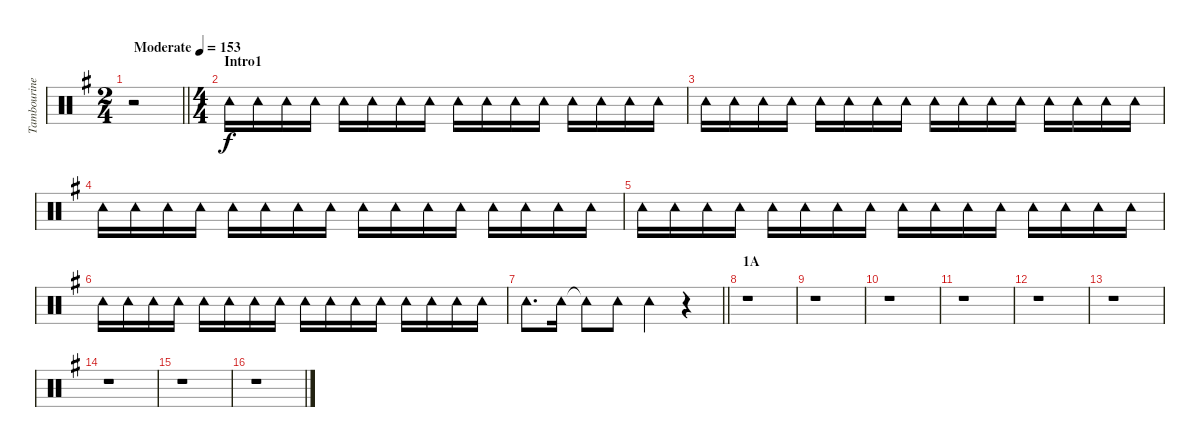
\track ("Tambourine" "Tambourine") {instrument percussion}
\staff {score}
\articulation defaults
\ts (2 4)
\tempo (153 "Moderate")
\clef neutral
\barLineRight lightlight
\ks g
r.2{dy f} |
\ts (4 4)
\section ("" "Intro1")
"Tambourine (hit)".16 "Tambourine (hit)".16 "Tambourine (hit)".16 "Tambourine (hit)".16 "Tambourine (hit)".16 "Tambourine (hit)".16 "Tambourine (hit)".16 "Tambourine (hit)".16 "Tambourine (hit)".16 "Tambourine (hit)".16 "Tambourine (hit)".16 "Tambourine (hit)".16 "Tambourine (hit)".16 "Tambourine (hit)".16 "Tambourine (hit)".16 "Tambourine (hit)".16 |
"Tambourine (hit)".16 "Tambourine (hit)".16 "Tambourine (hit)".16 "Tambourine (hit)".16 "Tambourine (hit)".16 "Tambourine (hit)".16 "Tambourine (hit)".16 "Tambourine (hit)".16 "Tambourine (hit)".16 "Tambourine (hit)".16 "Tambourine (hit)".16 "Tambourine (hit)".16 "Tambourine (hit)".16 "Tambourine (hit)".16 "Tambourine (hit)".16 "Tambourine (hit)".16 |
"Tambourine (hit)".16 "Tambourine (hit)".16 "Tambourine (hit)".16 "Tambourine (hit)".16 "Tambourine (hit)".16 "Tambourine (hit)".16 "Tambourine (hit)".16 "Tambourine (hit)".16 "Tambourine (hit)".16 "Tambourine (hit)".16 "Tambourine (hit)".16 "Tambourine (hit)".16 "Tambourine (hit)".16 "Tambourine (hit)".16 "Tambourine (hit)".16 "Tambourine (hit)".16 |
"Tambourine (hit)".16 "Tambourine (hit)".16 "Tambourine (hit)".16 "Tambourine (hit)".16 "Tambourine (hit)".16 "Tambourine (hit)".16 "Tambourine (hit)".16 "Tambourine (hit)".16 "Tambourine (hit)".16 "Tambourine (hit)".16 "Tambourine (hit)".16 "Tambourine (hit)".16 "Tambourine (hit)".16 "Tambourine (hit)".16 "Tambourine (hit)".16 "Tambourine (hit)".16 |
"Tambourine (hit)".16 "Tambourine (hit)".16 "Tambourine (hit)".16 "Tambourine (hit)".16 "Tambourine (hit)".16 "Tambourine (hit)".16 "Tambourine (hit)".16 "Tambourine (hit)".16 "Tambourine (hit)".16 "Tambourine (hit)".16 "Tambourine (hit)".16 "Tambourine (hit)".16 "Tambourine (hit)".16 "Tambourine (hit)".16 "Tambourine (hit)".16 "Tambourine (hit)".16 |
\barLineRight lightlight "Tambourine (hit)".8{d} "Tambourine (hit)".16 "Tambourine (hit)"{t}.8 "Tambourine (hit)".8 "Tambourine (hit)".4
r.4 |
\section ("" "1A")
r.1 |
r.1 |
r.1 |
r.1 |
r.1 |
r.1 |
r.1 |
r.1 |
r.1
